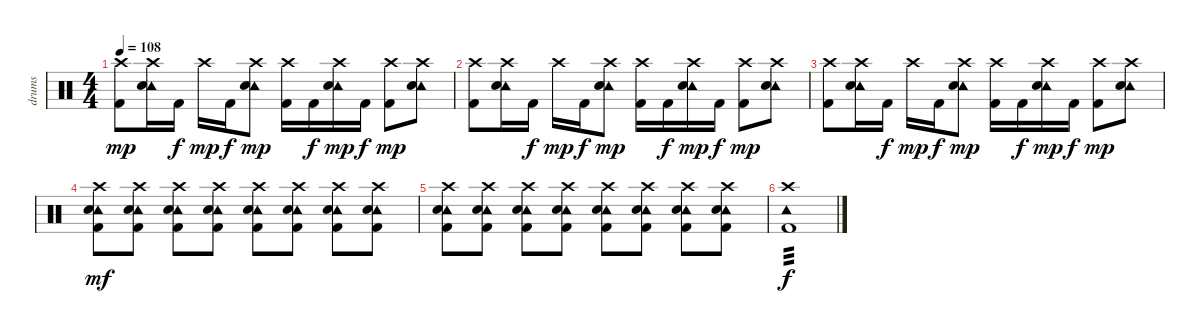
\track ("drums" "drums") {instrument percussion}
\staff {score}
\articulation defaults
\ts (4 4)
\tempo 108
\clef neutral
\ks c
("Crash high (hit)" "Kick (hit) 2").8{dy mp} ("Tambourine (hit)" "Crash high (hit)" "Snare (hit) 2").16 "Kick (hit) 2".16{dy f} "Crash high (hit)".16{dy mp} "Kick (hit) 2".16{dy f} ("Tambourine (hit)" "Crash high (hit)" "Snare (hit) 2").8{dy mp} ("Crash high (hit)" "Kick (hit) 2").16 "Kick (hit) 2".16{dy f} ("Tambourine (hit)" "Crash high (hit)" "Snare (hit) 2").16{dy mp} "Kick (hit) 2".16{dy f} ("Crash high (hit)" "Kick (hit) 2").8{dy mp} ("Tambourine (hit)" "Crash high (hit)" "Snare (hit) 2").8 |
("Crash high (hit)" "Kick (hit) 2").8 ("Tambourine (hit)" "Crash high (hit)" "Snare (hit) 2").16 "Kick (hit) 2".16{dy f} "Crash high (hit)".16{dy mp} "Kick (hit) 2".16{dy f} ("Tambourine (hit)" "Crash high (hit)" "Snare (hit) 2").8{dy mp} ("Crash high (hit)" "Kick (hit) 2").16 "Kick (hit) 2".16{dy f} ("Tambourine (hit)" "Crash high (hit)" "Snare (hit) 2").16{dy mp} "Kick (hit) 2".16{dy f} ("Crash high (hit)" "Kick (hit) 2").8{dy mp} ("Tambourine (hit)" "Crash high (hit)" "Snare (hit) 2").8 |
("Crash high (hit)" "Kick (hit) 2").8 ("Tambourine (hit)" "Crash high (hit)" "Snare (hit) 2").16 "Kick (hit) 2".16{dy f} "Crash high (hit)".16{dy mp} "Kick (hit) 2".16{dy f} ("Tambourine (hit)" "Crash high (hit)" "Snare (hit) 2").8{dy mp} ("Crash high (hit)" "Kick (hit) 2").16 "Kick (hit) 2".16{dy f} ("Tambourine (hit)" "Crash high (hit)" "Snare (hit) 2").16{dy mp} "Kick (hit) 2".16{dy f} ("Crash high (hit)" "Kick (hit) 2").8{dy mp} ("Tambourine (hit)" "Crash high (hit)" "Snare (hit) 2").8 |
("Tambourine (hit)" "Crash high (hit)" "Snare (hit) 2" "Kick (hit) 2").8{dy mf} ("Tambourine (hit)" "Crash high (hit)" "Snare (hit) 2" "Kick (hit) 2").8 ("Tambourine (hit)" "Crash high (hit)" "Snare (hit) 2" "Kick (hit) 2").8 ("Tambourine (hit)" "Crash high (hit)" "Snare (hit) 2" "Kick (hit) 2").8 ("Tambourine (hit)" "Crash high (hit)" "Snare (hit) 2" "Kick (hit) 2").8 ("Tambourine (hit)" "Crash high (hit)" "Snare (hit) 2" "Kick (hit) 2").8 ("Tambourine (hit)" "Crash high (hit)" "Snare (hit) 2" "Kick (hit) 2").8 ("Tambourine (hit)" "Crash high (hit)" "Snare (hit) 2" "Kick (hit) 2").8 |
("Tambourine (hit)" "Crash high (hit)" "Snare (hit) 2" "Kick (hit) 2").8 ("Tambourine (hit)" "Crash high (hit)" "Snare (hit) 2" "Kick (hit) 2").8 ("Tambourine (hit)" "Crash high (hit)" "Snare (hit) 2" "Kick (hit) 2").8 ("Tambourine (hit)" "Crash high (hit)" "Snare (hit) 2" "Kick (hit) 2").8 ("Tambourine (hit)" "Crash high (hit)" "Snare (hit) 2" "Kick (hit) 2").8 ("Tambourine (hit)" "Crash high (hit)" "Snare (hit) 2" "Kick (hit) 2").8 ("Tambourine (hit)" "Crash high (hit)" "Snare (hit) 2" "Kick (hit) 2").8 ("Tambourine (hit)" "Crash high (hit)" "Snare (hit) 2" "Kick (hit) 2").8 |
("Tambourine (hit)" "Crash high (hit)" "Kick (hit) 2").1{tp 3 dy f volume 1}
